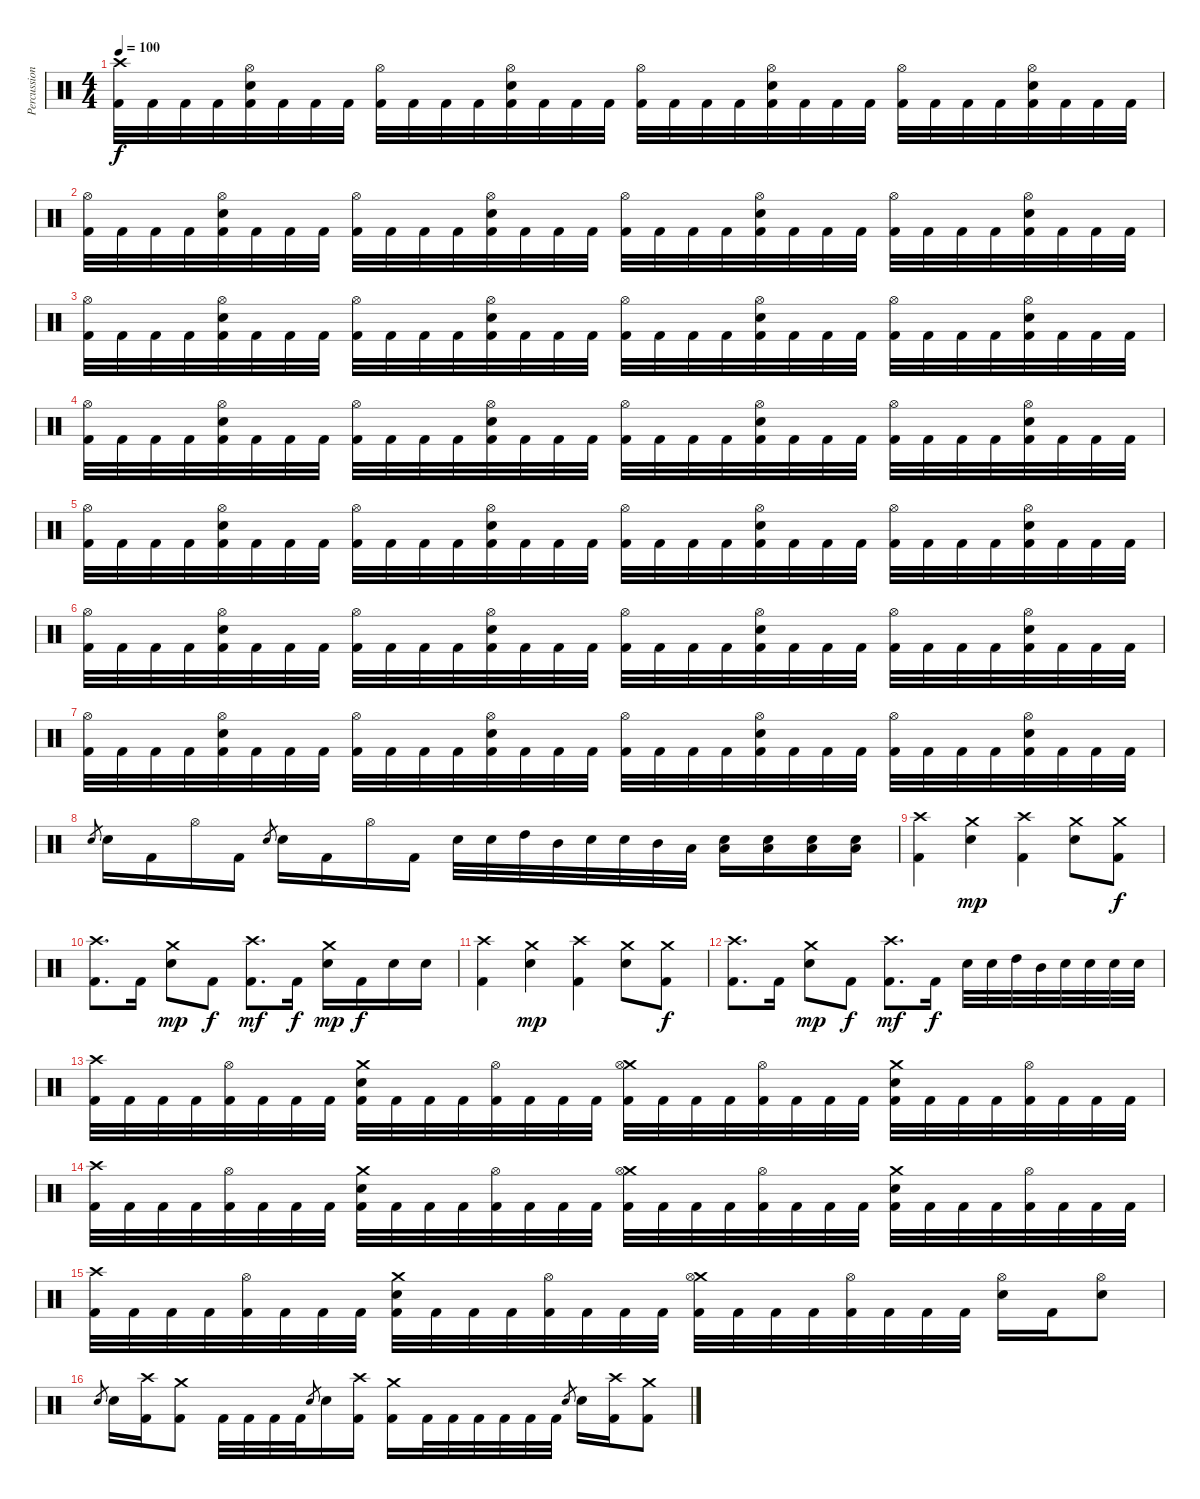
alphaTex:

\track ("Percussion" "Percussion") {instrument percussion}
\staff {score}
\articulation defaults
\ts (4 4)
\tempo 100
\clef neutral
\ks c
("Crash high (hit)" "Kick (hit) 2").32{dy f} "Kick (hit) 2".32 "Kick (hit) 2".32 "Kick (hit) 2".32 ("Hi-Hat (open)" "Snare (hit) 2" "Kick (hit) 2").32 "Kick (hit) 2".32 "Kick (hit) 2".32 "Kick (hit) 2".32 ("Hi-Hat (open)" "Kick (hit) 2").32 "Kick (hit) 2".32 "Kick (hit) 2".32 "Kick (hit) 2".32 ("Hi-Hat (open)" "Snare (hit) 2" "Kick (hit) 2").32 "Kick (hit) 2".32 "Kick (hit) 2".32 "Kick (hit) 2".32 ("Hi-Hat (open)" "Kick (hit) 2").32 "Kick (hit) 2".32 "Kick (hit) 2".32 "Kick (hit) 2".32 ("Hi-Hat (open)" "Snare (hit) 2" "Kick (hit) 2").32 "Kick (hit) 2".32 "Kick (hit) 2".32 "Kick (hit) 2".32 ("Hi-Hat (open)" "Kick (hit) 2").32 "Kick (hit) 2".32 "Kick (hit) 2".32 "Kick (hit) 2".32 ("Hi-Hat (open)" "Snare (hit) 2" "Kick (hit) 2").32 "Kick (hit) 2".32 "Kick (hit) 2".32 "Kick (hit) 2".32 |
("Hi-Hat (open)" "Kick (hit) 2").32 "Kick (hit) 2".32 "Kick (hit) 2".32 "Kick (hit) 2".32 ("Hi-Hat (open)" "Snare (hit) 2" "Kick (hit) 2").32 "Kick (hit) 2".32 "Kick (hit) 2".32 "Kick (hit) 2".32 ("Hi-Hat (open)" "Kick (hit) 2").32 "Kick (hit) 2".32 "Kick (hit) 2".32 "Kick (hit) 2".32 ("Hi-Hat (open)" "Snare (hit) 2" "Kick (hit) 2").32 "Kick (hit) 2".32 "Kick (hit) 2".32 "Kick (hit) 2".32 ("Hi-Hat (open)" "Kick (hit) 2").32 "Kick (hit) 2".32 "Kick (hit) 2".32 "Kick (hit) 2".32 ("Hi-Hat (open)" "Snare (hit) 2" "Kick (hit) 2").32 "Kick (hit) 2".32 "Kick (hit) 2".32 "Kick (hit) 2".32 ("Hi-Hat (open)" "Kick (hit) 2").32 "Kick (hit) 2".32 "Kick (hit) 2".32 "Kick (hit) 2".32 ("Hi-Hat (open)" "Snare (hit) 2" "Kick (hit) 2").32 "Kick (hit) 2".32 "Kick (hit) 2".32 "Kick (hit) 2".32 |
("Hi-Hat (open)" "Kick (hit) 2").32 "Kick (hit) 2".32 "Kick (hit) 2".32 "Kick (hit) 2".32 ("Hi-Hat (open)" "Snare (hit) 2" "Kick (hit) 2").32 "Kick (hit) 2".32 "Kick (hit) 2".32 "Kick (hit) 2".32 ("Hi-Hat (open)" "Kick (hit) 2").32 "Kick (hit) 2".32 "Kick (hit) 2".32 "Kick (hit) 2".32 ("Hi-Hat (open)" "Snare (hit) 2" "Kick (hit) 2").32 "Kick (hit) 2".32 "Kick (hit) 2".32 "Kick (hit) 2".32 ("Hi-Hat (open)" "Kick (hit) 2").32 "Kick (hit) 2".32 "Kick (hit) 2".32 "Kick (hit) 2".32 ("Hi-Hat (open)" "Snare (hit) 2" "Kick (hit) 2").32 "Kick (hit) 2".32 "Kick (hit) 2".32 "Kick (hit) 2".32 ("Hi-Hat (open)" "Kick (hit) 2").32 "Kick (hit) 2".32 "Kick (hit) 2".32 "Kick (hit) 2".32 ("Hi-Hat (open)" "Snare (hit) 2" "Kick (hit) 2").32 "Kick (hit) 2".32 "Kick (hit) 2".32 "Kick (hit) 2".32 |
("Hi-Hat (open)" "Kick (hit) 2").32 "Kick (hit) 2".32 "Kick (hit) 2".32 "Kick (hit) 2".32 ("Hi-Hat (open)" "Snare (hit) 2" "Kick (hit) 2").32 "Kick (hit) 2".32 "Kick (hit) 2".32 "Kick (hit) 2".32 ("Hi-Hat (open)" "Kick (hit) 2").32 "Kick (hit) 2".32 "Kick (hit) 2".32 "Kick (hit) 2".32 ("Hi-Hat (open)" "Snare (hit) 2" "Kick (hit) 2").32 "Kick (hit) 2".32 "Kick (hit) 2".32 "Kick (hit) 2".32 ("Hi-Hat (open)" "Kick (hit) 2").32 "Kick (hit) 2".32 "Kick (hit) 2".32 "Kick (hit) 2".32 ("Hi-Hat (open)" "Snare (hit) 2" "Kick (hit) 2").32 "Kick (hit) 2".32 "Kick (hit) 2".32 "Kick (hit) 2".32 ("Hi-Hat (open)" "Kick (hit) 2").32 "Kick (hit) 2".32 "Kick (hit) 2".32 "Kick (hit) 2".32 ("Hi-Hat (open)" "Snare (hit) 2" "Kick (hit) 2").32 "Kick (hit) 2".32 "Kick (hit) 2".32 "Kick (hit) 2".32 |
("Hi-Hat (open)" "Kick (hit) 2").32 "Kick (hit) 2".32 "Kick (hit) 2".32 "Kick (hit) 2".32 ("Hi-Hat (open)" "Snare (hit) 2" "Kick (hit) 2").32 "Kick (hit) 2".32 "Kick (hit) 2".32 "Kick (hit) 2".32 ("Hi-Hat (open)" "Kick (hit) 2").32 "Kick (hit) 2".32 "Kick (hit) 2".32 "Kick (hit) 2".32 ("Hi-Hat (open)" "Snare (hit) 2" "Kick (hit) 2").32 "Kick (hit) 2".32 "Kick (hit) 2".32 "Kick (hit) 2".32 ("Hi-Hat (open)" "Kick (hit) 2").32 "Kick (hit) 2".32 "Kick (hit) 2".32 "Kick (hit) 2".32 ("Hi-Hat (open)" "Snare (hit) 2" "Kick (hit) 2").32 "Kick (hit) 2".32 "Kick (hit) 2".32 "Kick (hit) 2".32 ("Hi-Hat (open)" "Kick (hit) 2").32 "Kick (hit) 2".32 "Kick (hit) 2".32 "Kick (hit) 2".32 ("Hi-Hat (open)" "Snare (hit) 2" "Kick (hit) 2").32 "Kick (hit) 2".32 "Kick (hit) 2".32 "Kick (hit) 2".32 |
("Hi-Hat (open)" "Kick (hit) 2").32 "Kick (hit) 2".32 "Kick (hit) 2".32 "Kick (hit) 2".32 ("Hi-Hat (open)" "Snare (hit) 2" "Kick (hit) 2").32 "Kick (hit) 2".32 "Kick (hit) 2".32 "Kick (hit) 2".32 ("Hi-Hat (open)" "Kick (hit) 2").32 "Kick (hit) 2".32 "Kick (hit) 2".32 "Kick (hit) 2".32 ("Hi-Hat (open)" "Snare (hit) 2" "Kick (hit) 2").32 "Kick (hit) 2".32 "Kick (hit) 2".32 "Kick (hit) 2".32 ("Hi-Hat (open)" "Kick (hit) 2").32 "Kick (hit) 2".32 "Kick (hit) 2".32 "Kick (hit) 2".32 ("Hi-Hat (open)" "Snare (hit) 2" "Kick (hit) 2").32 "Kick (hit) 2".32 "Kick (hit) 2".32 "Kick (hit) 2".32 ("Hi-Hat (open)" "Kick (hit) 2").32 "Kick (hit) 2".32 "Kick (hit) 2".32 "Kick (hit) 2".32 ("Hi-Hat (open)" "Snare (hit) 2" "Kick (hit) 2").32 "Kick (hit) 2".32 "Kick (hit) 2".32 "Kick (hit) 2".32 |
("Hi-Hat (open)" "Kick (hit) 2").32 "Kick (hit) 2".32 "Kick (hit) 2".32 "Kick (hit) 2".32 ("Hi-Hat (open)" "Snare (hit) 2" "Kick (hit) 2").32 "Kick (hit) 2".32 "Kick (hit) 2".32 "Kick (hit) 2".32 ("Hi-Hat (open)" "Kick (hit) 2").32 "Kick (hit) 2".32 "Kick (hit) 2".32 "Kick (hit) 2".32 ("Hi-Hat (open)" "Snare (hit) 2" "Kick (hit) 2").32 "Kick (hit) 2".32 "Kick (hit) 2".32 "Kick (hit) 2".32 ("Hi-Hat (open)" "Kick (hit) 2").32 "Kick (hit) 2".32 "Kick (hit) 2".32 "Kick (hit) 2".32 ("Hi-Hat (open)" "Snare (hit) 2" "Kick (hit) 2").32 "Kick (hit) 2".32 "Kick (hit) 2".32 "Kick (hit) 2".32 ("Hi-Hat (open)" "Kick (hit) 2").32 "Kick (hit) 2".32 "Kick (hit) 2".32 "Kick (hit) 2".32 ("Hi-Hat (open)" "Snare (hit) 2" "Kick (hit) 2").32 "Kick (hit) 2".32 "Kick (hit) 2".32 "Kick (hit) 2".32 |
"Snare (hit) 2".8{gr} "Snare (hit) 2".16 "Kick (hit) 2".16 "Hi-Hat (open)".16 "Kick (hit) 2".16 "Snare (hit) 2".8{gr} "Snare (hit) 2".16 "Kick (hit) 2".16 "Hi-Hat (open)".16 "Kick (hit) 2".16 "Snare (hit) 2".32 "Snare (hit) 2".32 "High Tom (hit)".32 "Mid Tom (hit)".32 "Snare (hit) 2".32 "Snare (hit) 2".32 "Mid Tom (hit)".32 "Low Tom (hit)".32 ("Snare (hit) 2" "Low Floor Tom (hit)").16 ("Snare (hit) 2" "Low Floor Tom (hit)").16 ("Snare (hit) 2" "Low Floor Tom (hit)").16 ("Snare (hit) 2" "Low Floor Tom (hit)").16 |
("Crash high (hit)" "Kick (hit) 2").4 ("Crash medium (hit)" "Snare (hit) 2").4{dy mp} ("Crash high (hit)" "Kick (hit) 2").4 ("Crash medium (hit)" "Snare (hit) 2").8 ("Crash medium (hit)" "Kick (hit) 2").8{dy f} |
("Crash high (hit)" "Kick (hit) 2").8{d} "Kick (hit) 2".16 ("Crash medium (hit)" "Snare (hit) 2").8{dy mp} "Kick (hit) 2".8{dy f} ("Crash high (hit)" "Kick (hit) 2").8{d dy mf} "Kick (hit) 2".16{dy f} ("Crash medium (hit)" "Snare (hit) 2").16{dy mp} "Kick (hit) 2".16{dy f} "Snare (hit) 2".16 "Snare (hit) 2".16 |
("Crash high (hit)" "Kick (hit) 2").4 ("Crash medium (hit)" "Snare (hit) 2").4{dy mp} ("Crash high (hit)" "Kick (hit) 2").4 ("Crash medium (hit)" "Snare (hit) 2").8 ("Crash medium (hit)" "Kick (hit) 2").8{dy f} |
("Crash high (hit)" "Kick (hit) 2").8{d} "Kick (hit) 2".16 ("Crash medium (hit)" "Snare (hit) 2").8{dy mp} "Kick (hit) 2".8{dy f} ("Crash high (hit)" "Kick (hit) 2").8{d dy mf} "Kick (hit) 2".16{dy f} "Snare (hit) 2".32 "Snare (hit) 2".32 "High Tom (hit)".32 "Mid Tom (hit)".32 "Snare (hit) 2".32 "Snare (hit) 2".32 "Snare (hit) 2".32 "Snare (hit) 2".32 |
("Crash high (hit)" "Kick (hit) 2").32 "Kick (hit) 2".32 "Kick (hit) 2".32 "Kick (hit) 2".32 ("Hi-Hat (open)" "Kick (hit) 2").32 "Kick (hit) 2".32 "Kick (hit) 2".32 "Kick (hit) 2".32 ("Crash medium (hit)" "Snare (hit) 2" "Kick (hit) 2").32 "Kick (hit) 2".32 "Kick (hit) 2".32 "Kick (hit) 2".32 ("Hi-Hat (open)" "Kick (hit) 2").32 "Kick (hit) 2".32 "Kick (hit) 2".32 "Kick (hit) 2".32 ("Crash medium (hit)" "Hi-Hat (open)" "Kick (hit) 2").32 "Kick (hit) 2".32 "Kick (hit) 2".32 "Kick (hit) 2".32 ("Hi-Hat (open)" "Kick (hit) 2").32 "Kick (hit) 2".32 "Kick (hit) 2".32 "Kick (hit) 2".32 ("Crash medium (hit)" "Snare (hit) 2" "Kick (hit) 2").32 "Kick (hit) 2".32 "Kick (hit) 2".32 "Kick (hit) 2".32 ("Hi-Hat (open)" "Kick (hit) 2").32 "Kick (hit) 2".32 "Kick (hit) 2".32 "Kick (hit) 2".32 |
("Crash high (hit)" "Kick (hit) 2").32 "Kick (hit) 2".32 "Kick (hit) 2".32 "Kick (hit) 2".32 ("Hi-Hat (open)" "Kick (hit) 2").32 "Kick (hit) 2".32 "Kick (hit) 2".32 "Kick (hit) 2".32 ("Crash medium (hit)" "Snare (hit) 2" "Kick (hit) 2").32 "Kick (hit) 2".32 "Kick (hit) 2".32 "Kick (hit) 2".32 ("Hi-Hat (open)" "Kick (hit) 2").32 "Kick (hit) 2".32 "Kick (hit) 2".32 "Kick (hit) 2".32 ("Crash medium (hit)" "Hi-Hat (open)" "Kick (hit) 2").32 "Kick (hit) 2".32 "Kick (hit) 2".32 "Kick (hit) 2".32 ("Hi-Hat (open)" "Kick (hit) 2").32 "Kick (hit) 2".32 "Kick (hit) 2".32 "Kick (hit) 2".32 ("Crash medium (hit)" "Snare (hit) 2" "Kick (hit) 2").32 "Kick (hit) 2".32 "Kick (hit) 2".32 "Kick (hit) 2".32 ("Hi-Hat (open)" "Kick (hit) 2").32 "Kick (hit) 2".32 "Kick (hit) 2".32 "Kick (hit) 2".32 |
("Crash high (hit)" "Kick (hit) 2").32 "Kick (hit) 2".32 "Kick (hit) 2".32 "Kick (hit) 2".32 ("Hi-Hat (open)" "Kick (hit) 2").32 "Kick (hit) 2".32 "Kick (hit) 2".32 "Kick (hit) 2".32 ("Crash medium (hit)" "Snare (hit) 2" "Kick (hit) 2").32 "Kick (hit) 2".32 "Kick (hit) 2".32 "Kick (hit) 2".32 ("Hi-Hat (open)" "Kick (hit) 2").32 "Kick (hit) 2".32 "Kick (hit) 2".32 "Kick (hit) 2".32 ("Crash medium (hit)" "Hi-Hat (open)" "Kick (hit) 2").32 "Kick (hit) 2".32 "Kick (hit) 2".32 "Kick (hit) 2".32 ("Hi-Hat (open)" "Kick (hit) 2").32 "Kick (hit) 2".32 "Kick (hit) 2".32 "Kick (hit) 2".32 ("Hi-Hat (open)" "Snare (hit) 2").16 "Kick (hit) 2".16 ("Hi-Hat (open)" "Snare (hit) 2").8 |
"Snare (hit) 2".8{gr} "Snare (hit) 2".16 ("Crash high (hit)" "Kick (hit) 2").16 ("Crash medium (hit)" "Kick (hit) 2").8 "Kick (hit) 2".32 "Kick (hit) 2".32 "Kick (hit) 2".32 "Kick (hit) 2".32 "Snare (hit) 2".8{gr} "Snare (hit) 2".16 ("Crash high (hit)" "Kick (hit) 2").16 ("Crash medium (hit)" "Kick (hit) 2").16 "Kick (hit) 2".32 "Kick (hit) 2".32 "Kick (hit) 2".32 "Kick (hit) 2".32 "Kick (hit) 2".32 "Kick (hit) 2".32 "Snare (hit) 2".8{gr} "Snare (hit) 2".16 ("Crash high (hit)" "Kick (hit) 2").16 ("Crash medium (hit)" "Kick (hit) 2").8
